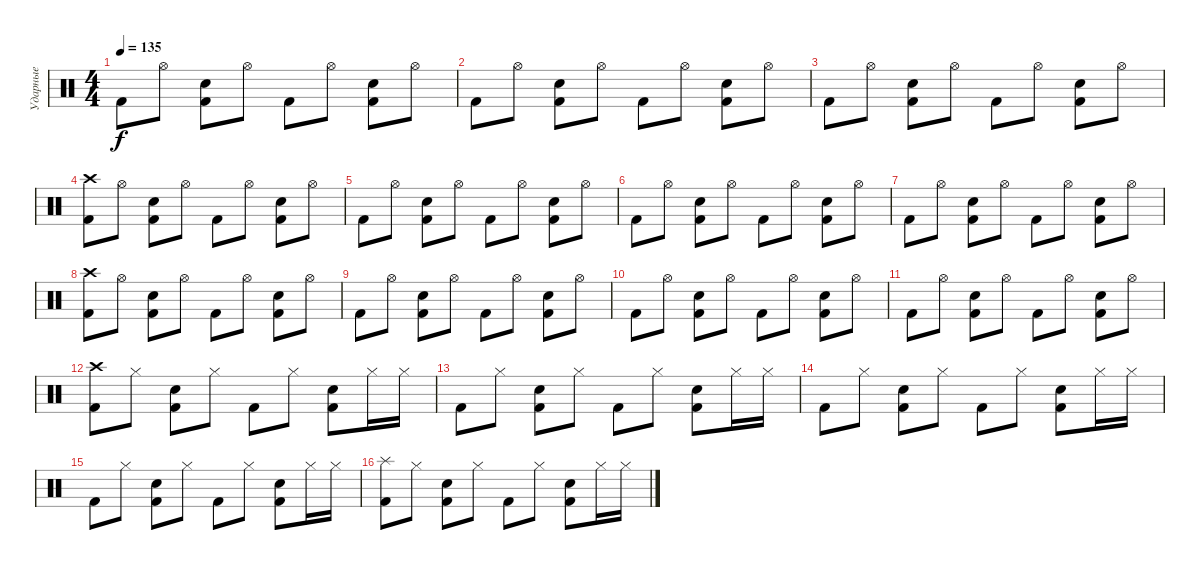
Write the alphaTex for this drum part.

\track ("Ударные" "Ударные") {instrument percussion}
\staff {score}
\articulation defaults
\ts (4 4)
\tempo 135
\clef neutral
\ks c "Kick (hit) 2".8{dy f} "Hi-Hat (open)".8
("Kick (hit) 2" "Snare (hit) 2").8 "Hi-Hat (open)".8 "Kick (hit) 2".8 "Hi-Hat (open)".8 ("Kick (hit) 2" "Snare (hit) 2").8 "Hi-Hat (open)".8 |
"Kick (hit) 2".8 "Hi-Hat (open)".8 ("Kick (hit) 2" "Snare (hit) 2").8 "Hi-Hat (open)".8 "Kick (hit) 2".8 "Hi-Hat (open)".8 ("Kick (hit) 2" "Snare (hit) 2").8 "Hi-Hat (open)".8 |
"Kick (hit) 2".8 "Hi-Hat (open)".8 ("Kick (hit) 2" "Snare (hit) 2").8 "Hi-Hat (open)".8 "Kick (hit) 2".8 "Hi-Hat (open)".8 ("Kick (hit) 2" "Snare (hit) 2").8 "Hi-Hat (open)".8 |
("Kick (hit) 2" "Crash high (hit)").8 "Hi-Hat (open)".8 ("Kick (hit) 2" "Snare (hit) 2").8 "Hi-Hat (open)".8 "Kick (hit) 2".8 "Hi-Hat (open)".8 ("Kick (hit) 2" "Snare (hit) 2").8 "Hi-Hat (open)".8 |
"Kick (hit) 2".8 "Hi-Hat (open)".8 ("Kick (hit) 2" "Snare (hit) 2").8 "Hi-Hat (open)".8 "Kick (hit) 2".8 "Hi-Hat (open)".8 ("Kick (hit) 2" "Snare (hit) 2").8 "Hi-Hat (open)".8 |
"Kick (hit) 2".8 "Hi-Hat (open)".8 ("Kick (hit) 2" "Snare (hit) 2").8 "Hi-Hat (open)".8 "Kick (hit) 2".8 "Hi-Hat (open)".8 ("Kick (hit) 2" "Snare (hit) 2").8 "Hi-Hat (open)".8 |
"Kick (hit) 2".8 "Hi-Hat (open)".8 ("Kick (hit) 2" "Snare (hit) 2").8 "Hi-Hat (open)".8 "Kick (hit) 2".8 "Hi-Hat (open)".8 ("Kick (hit) 2" "Snare (hit) 2").8 "Hi-Hat (open)".8 |
("Kick (hit) 2" "Crash high (hit)").8 "Hi-Hat (open)".8 ("Kick (hit) 2" "Snare (hit) 2").8 "Hi-Hat (open)".8 "Kick (hit) 2".8 "Hi-Hat (open)".8 ("Kick (hit) 2" "Snare (hit) 2").8 "Hi-Hat (open)".8 |
"Kick (hit) 2".8 "Hi-Hat (open)".8 ("Kick (hit) 2" "Snare (hit) 2").8 "Hi-Hat (open)".8 "Kick (hit) 2".8 "Hi-Hat (open)".8 ("Kick (hit) 2" "Snare (hit) 2").8 "Hi-Hat (open)".8 |
"Kick (hit) 2".8 "Hi-Hat (open)".8 ("Kick (hit) 2" "Snare (hit) 2").8 "Hi-Hat (open)".8 "Kick (hit) 2".8 "Hi-Hat (open)".8 ("Kick (hit) 2" "Snare (hit) 2").8 "Hi-Hat (open)".8 |
"Kick (hit) 2".8 "Hi-Hat (open)".8 ("Kick (hit) 2" "Snare (hit) 2").8 "Hi-Hat (open)".8 "Kick (hit) 2".8 "Hi-Hat (open)".8 ("Kick (hit) 2" "Snare (hit) 2").8 "Hi-Hat (open)".8 |
("Kick (hit) 2" "Crash high (hit)").8 "Hi-Hat (closed)".8 ("Kick (hit) 2" "Hand Clap (hit)").8 "Hi-Hat (closed)".8 "Kick (hit) 2".8 "Hi-Hat (closed)".8 ("Kick (hit) 2" "Hand Clap (hit)").8 "Hi-Hat (closed)".16 "Hi-Hat (closed)".16 |
"Kick (hit) 2".8 "Hi-Hat (closed)".8 ("Kick (hit) 2" "Hand Clap (hit)").8 "Hi-Hat (closed)".8 "Kick (hit) 2".8 "Hi-Hat (closed)".8 ("Kick (hit) 2" "Hand Clap (hit)").8 "Hi-Hat (closed)".16 "Hi-Hat (closed)".16 |
"Kick (hit) 2".8 "Hi-Hat (closed)".8 ("Kick (hit) 2" "Hand Clap (hit)").8 "Hi-Hat (closed)".8 "Kick (hit) 2".8 "Hi-Hat (closed)".8 ("Kick (hit) 2" "Hand Clap (hit)").8 "Hi-Hat (closed)".16 "Hi-Hat (closed)".16 |
"Kick (hit) 2".8 "Hi-Hat (closed)".8 ("Kick (hit) 2" "Hand Clap (hit)").8 "Hi-Hat (closed)".8 "Kick (hit) 2".8 "Hi-Hat (closed)".8 ("Kick (hit) 2" "Hand Clap (hit)").8 "Hi-Hat (closed)".16 "Hi-Hat (closed)".16 |
("Kick (hit) 2" "Splash (hit)").8 "Hi-Hat (closed)".8 ("Kick (hit) 2" "Hand Clap (hit)").8 "Hi-Hat (closed)".8 "Kick (hit) 2".8 "Hi-Hat (closed)".8 ("Kick (hit) 2" "Hand Clap (hit)").8 "Hi-Hat (closed)".16 "Hi-Hat (closed)".16
